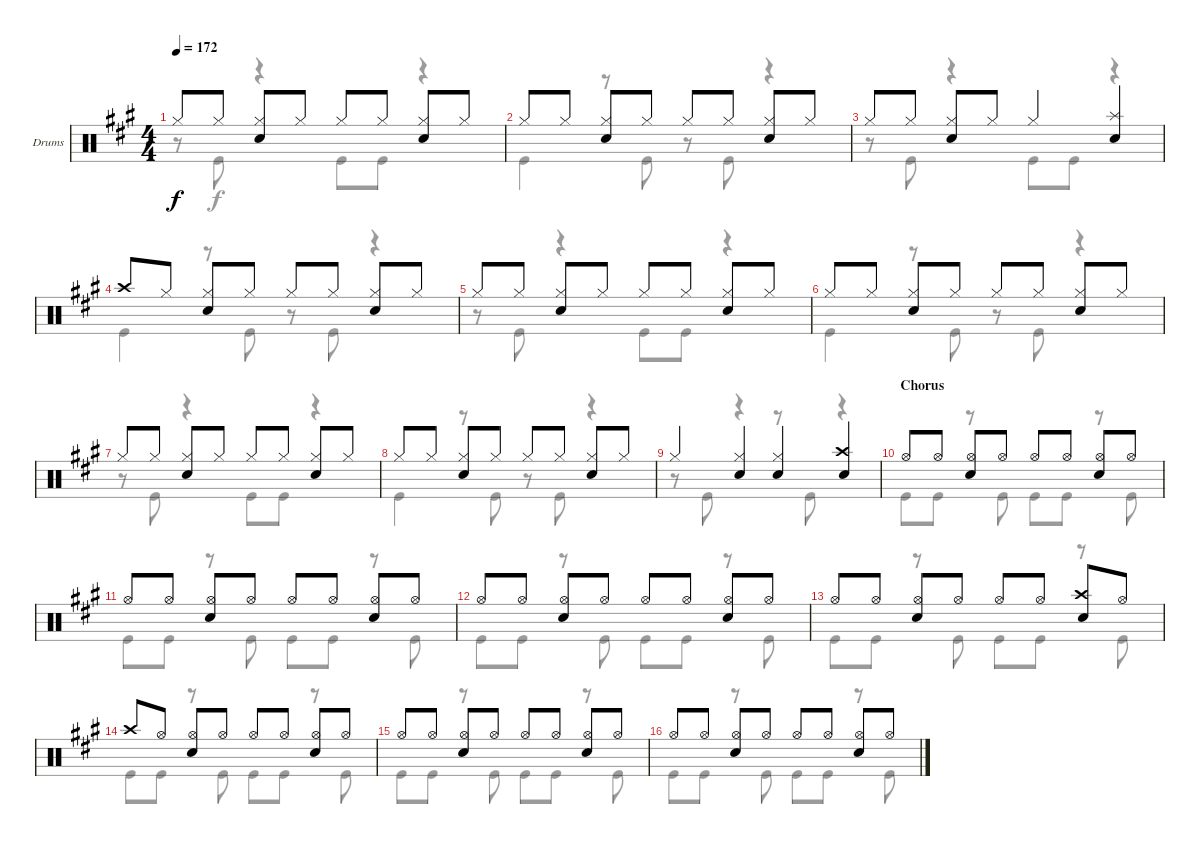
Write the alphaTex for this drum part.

\defaultSystemsLayout 4
\bracketExtendMode groupsimilarinstruments
\firstSystemTrackNameOrientation horizontal
\otherSystemsTrackNameOrientation horizontal
\track ("Taylor Hawkins" "Drums") {instrument percussion}
\staff {score}
\articulation defaults
\voice
\ts (4 4)
\tempo 172
\clef neutral
\scale
0.333333
\ks a "Hi-Hat (closed)".8{dy f} "Hi-Hat (closed)".8
("Hi-Hat (closed)" "Snare (hit) 2").8 "Hi-Hat (closed)".8 "Hi-Hat (closed)".8 "Hi-Hat (closed)".8 ("Hi-Hat (closed)" "Snare (hit) 2").8 "Hi-Hat (closed)".8 |
\scale
0.333333 "Hi-Hat (closed)".8 "Hi-Hat (closed)".8 ("Hi-Hat (closed)" "Snare (hit) 2").8 "Hi-Hat (closed)".8 "Hi-Hat (closed)".8 "Hi-Hat (closed)".8 ("Snare (hit) 2" "Hi-Hat (closed)").8 "Hi-Hat (closed)".8 |
\scale
0.333333 "Hi-Hat (closed)".8 "Hi-Hat (closed)".8 ("Hi-Hat (closed)" "Snare (hit) 2").8 "Hi-Hat (closed)".8 "Hi-Hat (closed)".4 ("Snare (hit) 2" "Splash (hit)").4 |
\scale
0.333333 "Crash high (hit)".8 "Hi-Hat (closed)".8 ("Hi-Hat (closed)" "Snare (hit) 2").8 "Hi-Hat (closed)".8 "Hi-Hat (closed)".8 "Hi-Hat (closed)".8 ("Hi-Hat (closed)" "Snare (hit) 2").8 "Hi-Hat (closed)".8 |
\scale
0.333333 "Hi-Hat (closed)".8 "Hi-Hat (closed)".8 ("Hi-Hat (closed)" "Snare (hit) 2").8 "Hi-Hat (closed)".8 "Hi-Hat (closed)".8 "Hi-Hat (closed)".8 ("Hi-Hat (closed)" "Snare (hit) 2").8 "Hi-Hat (closed)".8 |
\scale
0.333333 "Hi-Hat (closed)".8 "Hi-Hat (closed)".8 ("Hi-Hat (closed)" "Snare (hit) 2").8 "Hi-Hat (closed)".8 "Hi-Hat (closed)".8 "Hi-Hat (closed)".8 ("Hi-Hat (closed)" "Snare (hit) 2").8 "Hi-Hat (closed)".8 |
\scale
0.333333 "Hi-Hat (closed)".8 "Hi-Hat (closed)".8 ("Hi-Hat (closed)" "Snare (hit) 2").8 "Hi-Hat (closed)".8 "Hi-Hat (closed)".8 "Hi-Hat (closed)".8 ("Hi-Hat (closed)" "Snare (hit) 2").8 "Hi-Hat (closed)".8 |
\scale
0.333333 "Hi-Hat (closed)".8 "Hi-Hat (closed)".8 ("Hi-Hat (closed)" "Snare (hit) 2").8 "Hi-Hat (closed)".8 "Hi-Hat (closed)".8 "Hi-Hat (closed)".8 ("Hi-Hat (closed)" "Snare (hit) 2").8 "Hi-Hat (closed)".8 |
\scale
0.333333 "Hi-Hat (closed)".4 ("Hi-Hat (closed)" "Snare (hit) 2").4 ("Snare (hit) 2" "Hi-Hat (closed)").4 ("Snare (hit) 2" "Crash high (hit)").4 |
\section ("" "Chorus")
\scale
0.333333 "Hi-Hat (open)".8 "Hi-Hat (open)".8 ("Hi-Hat (open)" "Snare (hit) 2").8 "Hi-Hat (open)".8 "Hi-Hat (open)".8 "Hi-Hat (open)".8 ("Hi-Hat (open)" "Snare (hit) 2").8 "Hi-Hat (open)".8 |
\scale
0.333333 "Hi-Hat (open)".8 "Hi-Hat (open)".8 ("Hi-Hat (open)" "Snare (hit) 2").8 "Hi-Hat (open)".8 "Hi-Hat (open)".8 "Hi-Hat (open)".8 ("Hi-Hat (open)" "Snare (hit) 2").8 "Hi-Hat (open)".8 |
\scale
0.333333 "Hi-Hat (open)".8 "Hi-Hat (open)".8 ("Hi-Hat (open)" "Snare (hit) 2").8 "Hi-Hat (open)".8 "Hi-Hat (open)".8 "Hi-Hat (open)".8 ("Hi-Hat (open)" "Snare (hit) 2").8 "Hi-Hat (open)".8 |
\scale
0.333333 "Hi-Hat (open)".8 "Hi-Hat (open)".8 ("Hi-Hat (open)" "Snare (hit) 2").8 "Hi-Hat (open)".8 "Hi-Hat (open)".8 "Hi-Hat (open)".8 ("Crash high (hit)" "Snare (hit) 2").8 "Hi-Hat (open)".8 |
\scale
0.333333 "Crash high (hit)".8 "Hi-Hat (open)".8 ("Hi-Hat (open)" "Snare (hit) 2").8 "Hi-Hat (open)".8 "Hi-Hat (open)".8 "Hi-Hat (open)".8 ("Hi-Hat (open)" "Snare (hit) 2").8 "Hi-Hat (open)".8 |
\scale
0.333333 "Hi-Hat (open)".8 "Hi-Hat (open)".8 ("Hi-Hat (open)" "Snare (hit) 2").8 "Hi-Hat (open)".8 "Hi-Hat (open)".8 "Hi-Hat (open)".8 ("Hi-Hat (open)" "Snare (hit) 2").8 "Hi-Hat (open)".8 |
\scale
0.333333 "Hi-Hat (open)".8 "Hi-Hat (open)".8 ("Hi-Hat (open)" "Snare (hit) 2").8 "Hi-Hat (open)".8 "Hi-Hat (open)".8 "Hi-Hat (open)".8 ("Hi-Hat (open)" "Snare (hit) 2").8 "Hi-Hat (open)".8
\voice
\clef neutral
\ottava regular
\simile none
\scale
0.333333
\ks a
r.8{dy f} "Kick (hit)".8 r.4 "Kick (hit)".8 "Kick (hit)".8 r.4 |
\scale
0.333333 "Kick (hit)".4 r.8 "Kick (hit)".8 r.8 "Kick (hit)".8 r.4 |
\scale
0.333333 r.8 "Kick (hit)".8 r.4 "Kick (hit)".8 "Kick (hit)".8 r.4 |
\scale
0.333333 "Kick (hit)".4 r.8 "Kick (hit)".8 r.8 "Kick (hit)".8 r.4 |
\scale
0.333333 r.8 "Kick (hit)".8 r.4 "Kick (hit)".8 "Kick (hit)".8 r.4 |
\scale
0.333333 "Kick (hit)".4 r.8 "Kick (hit)".8 r.8 "Kick (hit)".8 r.4 |
\scale
0.333333 r.8 "Kick (hit)".8 r.4 "Kick (hit)".8 "Kick (hit)".8 r.4 |
\scale
0.333333 "Kick (hit)".4 r.8 "Kick (hit)".8 r.8 "Kick (hit)".8 r.4 |
\scale
0.333333 r.8 "Kick (hit)".8 r.4 r.8 "Kick (hit)".8 r.4 |
\scale
0.333333 "Kick (hit)".8 "Kick (hit)".8 r.8 "Kick (hit)".8 "Kick (hit)".8 "Kick (hit)".8 r.8 "Kick (hit)".8 |
\scale
0.333333 "Kick (hit)".8 "Kick (hit)".8 r.8 "Kick (hit)".8 "Kick (hit)".8 "Kick (hit)".8 r.8 "Kick (hit)".8 |
\scale
0.333333 "Kick (hit)".8 "Kick (hit)".8 r.8 "Kick (hit)".8 "Kick (hit)".8 "Kick (hit)".8 r.8 "Kick (hit)".8 |
\scale
0.333333 "Kick (hit)".8 "Kick (hit)".8 r.8 "Kick (hit)".8 "Kick (hit)".8 "Kick (hit)".8 r.8 "Kick (hit)".8 |
\scale
0.333333 "Kick (hit)".8 "Kick (hit)".8 r.8 "Kick (hit)".8 "Kick (hit)".8 "Kick (hit)".8 r.8 "Kick (hit)".8 |
\scale
0.333333 "Kick (hit)".8 "Kick (hit)".8 r.8 "Kick (hit)".8 "Kick (hit)".8 "Kick (hit)".8 r.8 "Kick (hit)".8 |
\scale
0.333333 "Kick (hit)".8 "Kick (hit)".8 r.8 "Kick (hit)".8 "Kick (hit)".8 "Kick (hit)".8 r.8 "Kick (hit)".8
